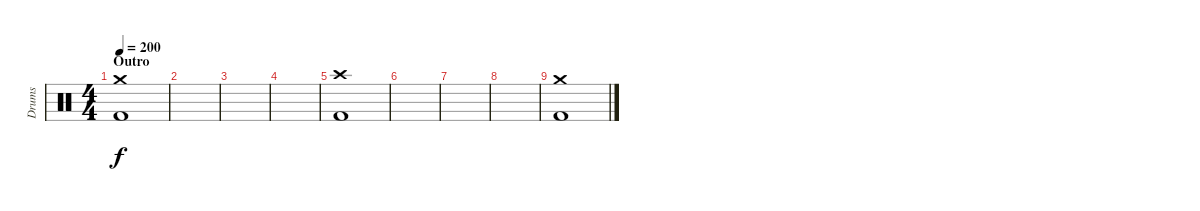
\track ("Drums" "Drums") {instrument percussion}
\staff {score}
\articulation defaults
\ts (4 4)
\section ("" "Outro")
\tempo 200
\clef neutral
\ks c
("Crash medium (hit)" "Kick (hit) 2").1{dy f} |
|
|
|
("Crash high (hit)" "Kick (hit) 2").1 |
|
|
|
("Crash medium (hit)" "Kick (hit) 2").1
